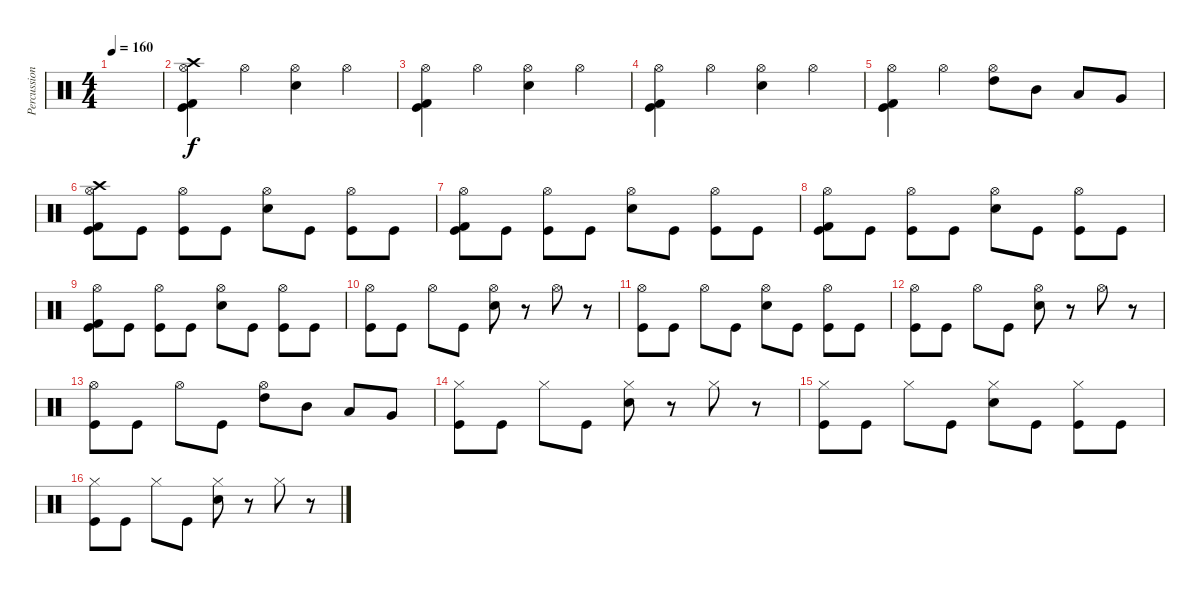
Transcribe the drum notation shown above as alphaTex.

\track ("Percussions" "Percussion") {instrument percussion}
\staff {score}
\articulation defaults
\ts (4 4)
\tempo 160
\clef neutral
\ks c
|
("Crash high (hit)" "Hi-Hat (open)" "Kick (hit)" "Kick (hit) 2").4 "Hi-Hat (open)".4 ("Electric Snare (hit)" "Hi-Hat (open)").4 "Hi-Hat (open)".4 |
("Hi-Hat (open)" "Kick (hit)" "Kick (hit) 2").4 "Hi-Hat (open)".4 ("Electric Snare (hit)" "Hi-Hat (open)").4 "Hi-Hat (open)".4 |
("Hi-Hat (open)" "Kick (hit)" "Kick (hit) 2").4 "Hi-Hat (open)".4 ("Electric Snare (hit)" "Hi-Hat (open)").4 "Hi-Hat (open)".4 |
("Hi-Hat (open)" "Kick (hit)" "Kick (hit) 2").4 "Hi-Hat (open)".4 ("Hi-Hat (open)" "High Tom (hit)").8 "Mid Tom (hit)".8 "Low Tom (hit)".8 "Very Low Tom (hit)".8 |
("Crash high (hit)" "Hi-Hat (open)" "Kick (hit)" "Kick (hit) 2").8 "Kick (hit)".8 ("Hi-Hat (open)" "Kick (hit)").8 "Kick (hit)".8 ("Electric Snare (hit)" "Hi-Hat (open)").8 "Kick (hit)".8 ("Hi-Hat (open)" "Kick (hit)").8 "Kick (hit)".8 |
("Hi-Hat (open)" "Kick (hit)" "Kick (hit) 2").8 "Kick (hit)".8 ("Hi-Hat (open)" "Kick (hit)").8 "Kick (hit)".8 ("Electric Snare (hit)" "Hi-Hat (open)").8 "Kick (hit)".8 ("Hi-Hat (open)" "Kick (hit)").8 "Kick (hit)".8 |
("Hi-Hat (open)" "Kick (hit)" "Kick (hit) 2").8 "Kick (hit)".8 ("Hi-Hat (open)" "Kick (hit)").8 "Kick (hit)".8 ("Electric Snare (hit)" "Hi-Hat (open)").8 "Kick (hit)".8 ("Hi-Hat (open)" "Kick (hit)").8 "Kick (hit)".8 |
("Hi-Hat (open)" "Kick (hit)" "Kick (hit) 2").8 "Kick (hit)".8 ("Hi-Hat (open)" "Kick (hit)").8 "Kick (hit)".8 ("Electric Snare (hit)" "Hi-Hat (open)").8 "Kick (hit)".8 ("Hi-Hat (open)" "Kick (hit)").8 "Kick (hit)".8 |
("Hi-Hat (open)" "Kick (hit)").8 "Kick (hit)".8 "Hi-Hat (open)".8 "Kick (hit)".8 ("Hi-Hat (open)" "Electric Snare (hit)").8 r.8 "Hi-Hat (open)".8 r.8 |
("Hi-Hat (open)" "Kick (hit)").8 "Kick (hit)".8 "Hi-Hat (open)".8 "Kick (hit)".8 ("Hi-Hat (open)" "Electric Snare (hit)").8 "Kick (hit)".8 ("Hi-Hat (open)" "Kick (hit)").8 "Kick (hit)".8 |
("Hi-Hat (open)" "Kick (hit)").8 "Kick (hit)".8 "Hi-Hat (open)".8 "Kick (hit)".8 ("Hi-Hat (open)" "Electric Snare (hit)").8 r.8 "Hi-Hat (open)".8 r.8 |
("Hi-Hat (open)" "Kick (hit)").8 "Kick (hit)".8 "Hi-Hat (open)".8 "Kick (hit)".8 ("Hi-Hat (open)" "High Tom (hit)").8 "Mid Tom (hit)".8 "Low Tom (hit)".8 "Very Low Tom (hit)".8 |
("Hi-Hat (closed)" "Kick (hit)").8 "Kick (hit)".8 "Hi-Hat (closed)".8 "Kick (hit)".8 ("Hi-Hat (closed)" "Electric Snare (hit)").8 r.8 "Hi-Hat (closed)".8 r.8 |
("Hi-Hat (closed)" "Kick (hit)").8 "Kick (hit)".8 "Hi-Hat (closed)".8 "Kick (hit)".8 ("Hi-Hat (closed)" "Electric Snare (hit)").8 "Kick (hit)".8 ("Hi-Hat (closed)" "Kick (hit)").8 "Kick (hit)".8 |
("Hi-Hat (closed)" "Kick (hit)").8 "Kick (hit)".8 "Hi-Hat (closed)".8 "Kick (hit)".8 ("Hi-Hat (closed)" "Electric Snare (hit)").8 r.8 "Hi-Hat (closed)".8 r.8
